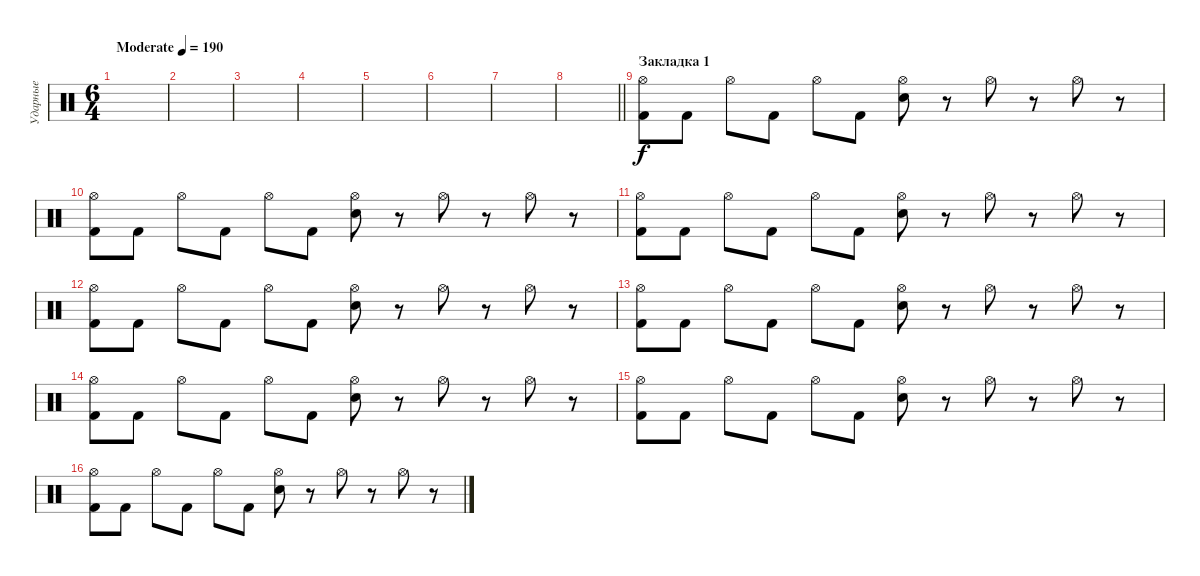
\track ("Ударные" "Ударные") {instrument percussion}
\staff {score}
\articulation defaults
\ts (6 4)
\tempo (190 "Moderate")
\clef neutral
\ks c
|
|
|
|
|
|
|
\barLineRight lightlight
|
\section ("" "Закладка 1")
("Hi-Hat (open)" "Kick (hit) 2").8 "Kick (hit) 2".8 "Hi-Hat (open)".8 "Kick (hit) 2".8 "Hi-Hat (open)".8 "Kick (hit) 2".8 ("Hi-Hat (open)" "Snare (hit) 2").8 r.8 "Hi-Hat (open)".8 r.8 "Hi-Hat (open)".8 r.8 |
("Hi-Hat (open)" "Kick (hit) 2").8 "Kick (hit) 2".8 "Hi-Hat (open)".8 "Kick (hit) 2".8 "Hi-Hat (open)".8 "Kick (hit) 2".8 ("Hi-Hat (open)" "Snare (hit) 2").8 r.8 "Hi-Hat (open)".8 r.8 "Hi-Hat (open)".8 r.8 |
("Hi-Hat (open)" "Kick (hit) 2").8 "Kick (hit) 2".8 "Hi-Hat (open)".8 "Kick (hit) 2".8 "Hi-Hat (open)".8 "Kick (hit) 2".8 ("Hi-Hat (open)" "Snare (hit) 2").8 r.8 "Hi-Hat (open)".8 r.8 "Hi-Hat (open)".8 r.8 |
("Hi-Hat (open)" "Kick (hit) 2").8 "Kick (hit) 2".8 "Hi-Hat (open)".8 "Kick (hit) 2".8 "Hi-Hat (open)".8 "Kick (hit) 2".8 ("Hi-Hat (open)" "Snare (hit) 2").8 r.8 "Hi-Hat (open)".8 r.8 "Hi-Hat (open)".8 r.8 |
("Hi-Hat (open)" "Kick (hit) 2").8 "Kick (hit) 2".8 "Hi-Hat (open)".8 "Kick (hit) 2".8 "Hi-Hat (open)".8 "Kick (hit) 2".8 ("Hi-Hat (open)" "Snare (hit) 2").8 r.8 "Hi-Hat (open)".8 r.8 "Hi-Hat (open)".8 r.8 |
("Hi-Hat (open)" "Kick (hit) 2").8 "Kick (hit) 2".8 "Hi-Hat (open)".8 "Kick (hit) 2".8 "Hi-Hat (open)".8 "Kick (hit) 2".8 ("Hi-Hat (open)" "Snare (hit) 2").8 r.8 "Hi-Hat (open)".8 r.8 "Hi-Hat (open)".8 r.8 |
("Hi-Hat (open)" "Kick (hit) 2").8 "Kick (hit) 2".8 "Hi-Hat (open)".8 "Kick (hit) 2".8 "Hi-Hat (open)".8 "Kick (hit) 2".8 ("Hi-Hat (open)" "Snare (hit) 2").8 r.8 "Hi-Hat (open)".8 r.8 "Hi-Hat (open)".8 r.8 |
("Hi-Hat (open)" "Kick (hit) 2").8 "Kick (hit) 2".8 "Hi-Hat (open)".8 "Kick (hit) 2".8 "Hi-Hat (open)".8 "Kick (hit) 2".8 ("Hi-Hat (open)" "Snare (hit) 2").8 r.8 "Hi-Hat (open)".8 r.8 "Hi-Hat (open)".8 r.8
